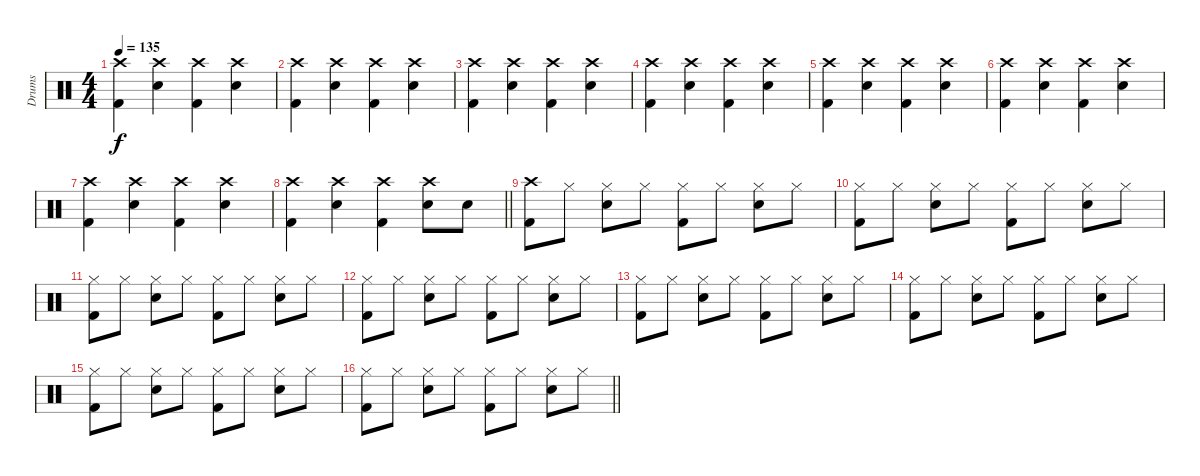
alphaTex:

\track ("Drums" "Drums") {instrument percussion}
\staff {score}
\articulation defaults
\ts (4 4)
\tempo 135
\clef neutral
\ks c
("Crash high (hit)" "Kick (hit) 2").4{dy f} ("Crash high (hit)" "Electric Snare (hit)").4 ("Crash high (hit)" "Kick (hit) 2").4 ("Crash high (hit)" "Electric Snare (hit)").4 |
("Crash high (hit)" "Kick (hit) 2").4 ("Crash high (hit)" "Electric Snare (hit)").4 ("Crash high (hit)" "Kick (hit) 2").4 ("Crash high (hit)" "Electric Snare (hit)").4 |
("Crash high (hit)" "Kick (hit) 2").4 ("Crash high (hit)" "Electric Snare (hit)").4 ("Crash high (hit)" "Kick (hit) 2").4 ("Crash high (hit)" "Electric Snare (hit)").4 |
("Crash high (hit)" "Kick (hit) 2").4 ("Crash high (hit)" "Electric Snare (hit)").4 ("Crash high (hit)" "Kick (hit) 2").4 ("Crash high (hit)" "Electric Snare (hit)").4 |
("Crash high (hit)" "Kick (hit) 2").4 ("Crash high (hit)" "Electric Snare (hit)").4 ("Crash high (hit)" "Kick (hit) 2").4 ("Crash high (hit)" "Electric Snare (hit)").4 |
("Crash high (hit)" "Kick (hit) 2").4 ("Crash high (hit)" "Electric Snare (hit)").4 ("Crash high (hit)" "Kick (hit) 2").4 ("Crash high (hit)" "Electric Snare (hit)").4 |
("Crash high (hit)" "Kick (hit) 2").4 ("Crash high (hit)" "Electric Snare (hit)").4 ("Crash high (hit)" "Kick (hit) 2").4 ("Crash high (hit)" "Electric Snare (hit)").4 |
\barLineRight lightlight
("Crash high (hit)" "Kick (hit) 2").4 ("Crash high (hit)" "Electric Snare (hit)").4 ("Crash high (hit)" "Kick (hit) 2").4 ("Crash high (hit)" "Electric Snare (hit)").8 "Electric Snare (hit)".8 |
("Crash high (hit)" "Kick (hit) 2").8 "Hi-Hat (closed)".8 ("Hi-Hat (closed)" "Electric Snare (hit)").8 "Hi-Hat (closed)".8 ("Hi-Hat (closed)" "Kick (hit) 2").8 "Hi-Hat (closed)".8 ("Hi-Hat (closed)" "Electric Snare (hit)").8 "Hi-Hat (closed)".8 |
("Hi-Hat (closed)" "Kick (hit) 2").8 "Hi-Hat (closed)".8 ("Hi-Hat (closed)" "Electric Snare (hit)").8 "Hi-Hat (closed)".8 ("Hi-Hat (closed)" "Kick (hit) 2").8 "Hi-Hat (closed)".8 ("Hi-Hat (closed)" "Electric Snare (hit)").8 "Hi-Hat (closed)".8 |
("Hi-Hat (closed)" "Kick (hit) 2").8 "Hi-Hat (closed)".8 ("Hi-Hat (closed)" "Electric Snare (hit)").8 "Hi-Hat (closed)".8 ("Hi-Hat (closed)" "Kick (hit) 2").8 "Hi-Hat (closed)".8 ("Hi-Hat (closed)" "Electric Snare (hit)").8 "Hi-Hat (closed)".8 |
("Hi-Hat (closed)" "Kick (hit) 2").8 "Hi-Hat (closed)".8 ("Hi-Hat (closed)" "Electric Snare (hit)").8 "Hi-Hat (closed)".8 ("Hi-Hat (closed)" "Kick (hit) 2").8 "Hi-Hat (closed)".8 ("Hi-Hat (closed)" "Electric Snare (hit)").8 "Hi-Hat (closed)".8 |
("Hi-Hat (closed)" "Kick (hit) 2").8 "Hi-Hat (closed)".8 ("Hi-Hat (closed)" "Electric Snare (hit)").8 "Hi-Hat (closed)".8 ("Hi-Hat (closed)" "Kick (hit) 2").8 "Hi-Hat (closed)".8 ("Hi-Hat (closed)" "Electric Snare (hit)").8 "Hi-Hat (closed)".8 |
("Hi-Hat (closed)" "Kick (hit) 2").8 "Hi-Hat (closed)".8 ("Hi-Hat (closed)" "Electric Snare (hit)").8 "Hi-Hat (closed)".8 ("Hi-Hat (closed)" "Kick (hit) 2").8 "Hi-Hat (closed)".8 ("Hi-Hat (closed)" "Electric Snare (hit)").8 "Hi-Hat (closed)".8 |
("Hi-Hat (closed)" "Kick (hit) 2").8 "Hi-Hat (closed)".8 ("Hi-Hat (closed)" "Electric Snare (hit)").8 "Hi-Hat (closed)".8 ("Hi-Hat (closed)" "Kick (hit) 2").8 "Hi-Hat (closed)".8 ("Hi-Hat (closed)" "Electric Snare (hit)").8 "Hi-Hat (closed)".8 |
\barLineRight lightlight
("Hi-Hat (closed)" "Kick (hit) 2").8 "Hi-Hat (closed)".8 ("Hi-Hat (closed)" "Electric Snare (hit)").8 "Hi-Hat (closed)".8 ("Hi-Hat (closed)" "Kick (hit) 2").8 "Hi-Hat (closed)".8 ("Hi-Hat (closed)" "Electric Snare (hit)").8 "Hi-Hat (closed)".8
